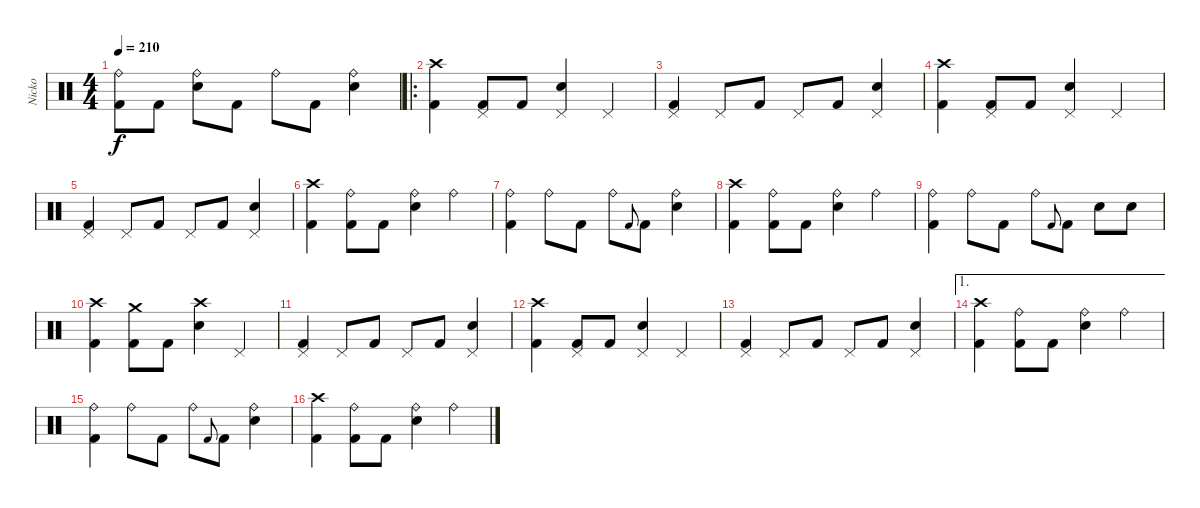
\track ("Nicko" "Nicko") {instrument percussion}
\staff {score}
\articulation defaults
\ts (4 4)
\tempo 210
\clef neutral
\ks c
("Ride (bell)" "Kick (hit) 2").8{dy f} "Kick (hit) 2".8 ("Ride (bell)" "Electric Snare (hit)").8 "Kick (hit) 2".8 "Ride (bell)".8 "Kick (hit) 2".8 ("Ride (bell)" "Electric Snare (hit)").4 |
\ro
("Crash high (hit)" "Kick (hit) 2").4 ("Pedal Hi-Hat (hit)" "Kick (hit) 2").8 "Kick (hit) 2".8 ("Pedal Hi-Hat (hit)" "Electric Snare (hit)").4 "Pedal Hi-Hat (hit)".4 |
("Pedal Hi-Hat (hit)" "Kick (hit) 2").4 "Pedal Hi-Hat (hit)".8 "Kick (hit) 2".8 "Pedal Hi-Hat (hit)".8 "Kick (hit) 2".8 ("Pedal Hi-Hat (hit)" "Electric Snare (hit)").4 |
("Crash high (hit)" "Kick (hit) 2").4 ("Pedal Hi-Hat (hit)" "Kick (hit) 2").8 "Kick (hit) 2".8 ("Pedal Hi-Hat (hit)" "Electric Snare (hit)").4 "Pedal Hi-Hat (hit)".4 |
("Pedal Hi-Hat (hit)" "Kick (hit) 2").4 "Pedal Hi-Hat (hit)".8 "Kick (hit) 2".8 "Pedal Hi-Hat (hit)".8 "Kick (hit) 2".8 ("Pedal Hi-Hat (hit)" "Electric Snare (hit)").4 |
("Crash high (hit)" "Kick (hit) 2").4 ("Ride (bell)" "Kick (hit) 2").8 "Kick (hit) 2".8 ("Ride (bell)" "Electric Snare (hit)").4 "Ride (bell)".4 |
("Ride (bell)" "Kick (hit) 2").4 "Ride (bell)".8 "Kick (hit) 2".8 "Ride (bell)".8 "Kick (hit) 2"{h}.8{gr onbeat} "Kick (hit) 2".8 ("Ride (bell)" "Electric Snare (hit)").4 |
("Crash high (hit)" "Kick (hit) 2").4 ("Ride (bell)" "Kick (hit) 2").8 "Kick (hit) 2".8 ("Ride (bell)" "Electric Snare (hit)").4 "Ride (bell)".4 |
("Ride (bell)" "Kick (hit) 2").4 "Ride (bell)".8 "Kick (hit) 2".8 "Ride (bell)".8 "Kick (hit) 2"{h}.8{gr onbeat} "Kick (hit) 2".8 "Electric Snare (hit)".8 "Electric Snare (hit)".8 |
("Crash high (hit)" "Kick (hit) 2").4 ("Crash medium (hit)" "Kick (hit) 2").8 "Kick (hit) 2".8 ("Crash high (hit)" "Electric Snare (hit)").4 "Pedal Hi-Hat (hit)".4 |
("Pedal Hi-Hat (hit)" "Kick (hit) 2").4 "Pedal Hi-Hat (hit)".8 "Kick (hit) 2".8 "Pedal Hi-Hat (hit)".8 "Kick (hit) 2".8 ("Pedal Hi-Hat (hit)" "Electric Snare (hit)").4 |
("Crash high (hit)" "Kick (hit) 2").4 ("Pedal Hi-Hat (hit)" "Kick (hit) 2").8 "Kick (hit) 2".8 ("Pedal Hi-Hat (hit)" "Electric Snare (hit)").4 "Pedal Hi-Hat (hit)".4 |
("Pedal Hi-Hat (hit)" "Kick (hit) 2").4 "Pedal Hi-Hat (hit)".8 "Kick (hit) 2".8 "Pedal Hi-Hat (hit)".8 "Kick (hit) 2".8 ("Pedal Hi-Hat (hit)" "Electric Snare (hit)").4 |
\ae 1
("Crash high (hit)" "Kick (hit) 2").4 ("Ride (bell)" "Kick (hit) 2").8 "Kick (hit) 2".8 ("Ride (bell)" "Electric Snare (hit)").4 "Ride (bell)".4 |
("Ride (bell)" "Kick (hit) 2").4 "Ride (bell)".8 "Kick (hit) 2".8 "Ride (bell)".8 "Kick (hit) 2"{h}.8{gr onbeat} "Kick (hit) 2".8 ("Ride (bell)" "Electric Snare (hit)").4 |
("Crash high (hit)" "Kick (hit) 2").4 ("Ride (bell)" "Kick (hit) 2").8 "Kick (hit) 2".8 ("Ride (bell)" "Electric Snare (hit)").4 "Ride (bell)".4
